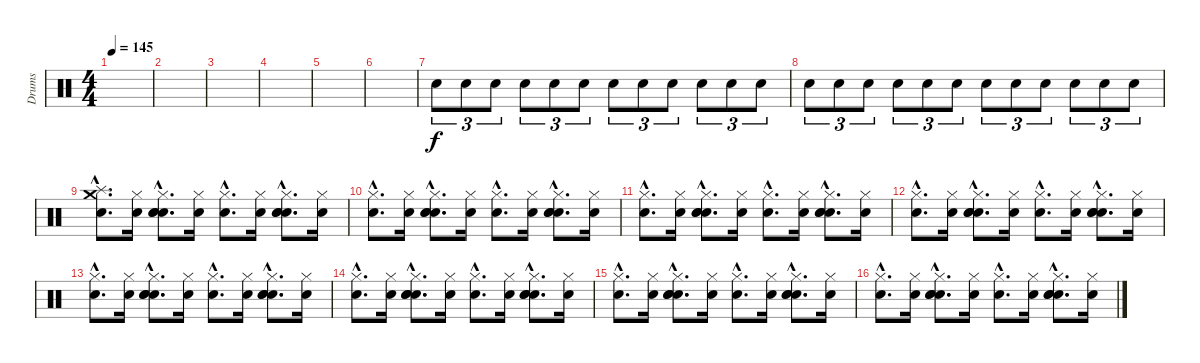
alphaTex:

\track ("Drums" "Drums") {instrument percussion}
\staff {score}
\articulation defaults
\ts (4 4)
\tempo 145
\clef neutral
\ks c
|
|
|
|
|
|
"Snare (hit) 2".8{tu (3 2)} "Snare (hit) 2".8{tu (3 2)} "Snare (hit) 2".8{tu (3 2)} "Snare (hit) 2".8{tu (3 2)} "Snare (hit) 2".8{tu (3 2)} "Snare (hit) 2".8{tu (3 2)} "Snare (hit) 2".8{tu (3 2)} "Snare (hit) 2".8{tu (3 2)} "Snare (hit) 2".8{tu (3 2)} "Snare (hit) 2".8{tu (3 2)} "Snare (hit) 2".8{tu (3 2)} "Snare (hit) 2".8{tu (3 2)} |
"Snare (hit) 2".8{tu (3 2)} "Snare (hit) 2".8{tu (3 2)} "Snare (hit) 2".8{tu (3 2)} "Electric Snare (hit)".8{tu (3 2)} "Electric Snare (hit)".8{tu (3 2)} "Electric Snare (hit)".8{tu (3 2)} "Electric Snare (hit)".8{tu (3 2)} "Electric Snare (hit)".8{tu (3 2)} "Electric Snare (hit)".8{tu (3 2)} "Electric Snare (hit)".8{tu (3 2)} "Electric Snare (hit)".8{tu (3 2)} "Electric Snare (hit)".8{tu (3 2)} |
("Crash medium (hit)"{hac} "Splash (hit)"{hac} "Snare (hit) 2"{hac}).8{d} ("Hi-Hat (closed)" "Snare (hit) 2").16 ("Hi-Hat (closed)"{hac} "Snare (hit) 2"{hac} "Electric Snare (hit)"{hac} "Electric Snare (hit)"{hac}).8{d} ("Hi-Hat (closed)" "Snare (hit) 2").16 ("Hi-Hat (closed)"{hac} "Snare (hit) 2"{hac}).8{d} ("Hi-Hat (closed)" "Snare (hit) 2").16 ("Hi-Hat (closed)"{hac} "Snare (hit) 2"{hac} "Electric Snare (hit)"{hac} "Electric Snare (hit)"{hac}).8{d} ("Hi-Hat (closed)" "Snare (hit) 2").16 |
("Hi-Hat (closed)"{hac} "Snare (hit) 2"{hac}).8{d} ("Hi-Hat (closed)" "Snare (hit) 2").16 ("Hi-Hat (closed)"{hac} "Snare (hit) 2"{hac} "Electric Snare (hit)"{hac} "Electric Snare (hit)"{hac}).8{d} ("Hi-Hat (closed)" "Snare (hit) 2").16 ("Hi-Hat (closed)"{hac} "Snare (hit) 2"{hac}).8{d} ("Hi-Hat (closed)" "Snare (hit) 2").16 ("Hi-Hat (closed)"{hac} "Snare (hit) 2"{hac} "Electric Snare (hit)"{hac} "Electric Snare (hit)"{hac}).8{d} ("Hi-Hat (closed)" "Snare (hit) 2").16 |
("Hi-Hat (closed)"{hac} "Snare (hit) 2"{hac}).8{d} ("Hi-Hat (closed)" "Snare (hit) 2").16 ("Hi-Hat (closed)"{hac} "Snare (hit) 2"{hac} "Electric Snare (hit)"{hac} "Electric Snare (hit)"{hac}).8{d} ("Hi-Hat (closed)" "Snare (hit) 2").16 ("Hi-Hat (closed)"{hac} "Snare (hit) 2"{hac}).8{d} ("Hi-Hat (closed)" "Snare (hit) 2").16 ("Hi-Hat (closed)"{hac} "Snare (hit) 2"{hac} "Electric Snare (hit)"{hac} "Electric Snare (hit)"{hac}).8{d} ("Hi-Hat (closed)" "Snare (hit) 2").16 |
("Hi-Hat (closed)"{hac} "Snare (hit) 2"{hac}).8{d} ("Hi-Hat (closed)" "Snare (hit) 2").16 ("Hi-Hat (closed)"{hac} "Snare (hit) 2"{hac} "Electric Snare (hit)"{hac} "Electric Snare (hit)"{hac}).8{d} ("Hi-Hat (closed)" "Snare (hit) 2").16 ("Hi-Hat (closed)"{hac} "Snare (hit) 2"{hac}).8{d} ("Hi-Hat (closed)" "Snare (hit) 2").16 ("Hi-Hat (closed)"{hac} "Snare (hit) 2"{hac} "Electric Snare (hit)"{hac} "Electric Snare (hit)"{hac}).8{d} ("Hi-Hat (closed)" "Snare (hit) 2").16 |
("Hi-Hat (closed)"{hac} "Snare (hit) 2"{hac}).8{d} ("Hi-Hat (closed)" "Snare (hit) 2").16 ("Hi-Hat (closed)"{hac} "Snare (hit) 2"{hac} "Electric Snare (hit)"{hac} "Electric Snare (hit)"{hac}).8{d} ("Hi-Hat (closed)" "Snare (hit) 2").16 ("Hi-Hat (closed)"{hac} "Snare (hit) 2"{hac}).8{d} ("Hi-Hat (closed)" "Snare (hit) 2").16 ("Hi-Hat (closed)"{hac} "Snare (hit) 2"{hac} "Electric Snare (hit)"{hac} "Electric Snare (hit)"{hac}).8{d} ("Hi-Hat (closed)" "Snare (hit) 2").16 |
("Hi-Hat (closed)"{hac} "Snare (hit) 2"{hac}).8{d} ("Hi-Hat (closed)" "Snare (hit) 2").16 ("Hi-Hat (closed)"{hac} "Snare (hit) 2"{hac} "Electric Snare (hit)"{hac} "Electric Snare (hit)"{hac}).8{d} ("Hi-Hat (closed)" "Snare (hit) 2").16 ("Hi-Hat (closed)"{hac} "Snare (hit) 2"{hac}).8{d} ("Hi-Hat (closed)" "Snare (hit) 2").16 ("Hi-Hat (closed)"{hac} "Snare (hit) 2"{hac} "Electric Snare (hit)"{hac} "Electric Snare (hit)"{hac}).8{d} ("Hi-Hat (closed)" "Snare (hit) 2").16 |
("Hi-Hat (closed)"{hac} "Snare (hit) 2"{hac}).8{d} ("Hi-Hat (closed)" "Snare (hit) 2").16 ("Hi-Hat (closed)"{hac} "Snare (hit) 2"{hac} "Electric Snare (hit)"{hac} "Electric Snare (hit)"{hac}).8{d} ("Hi-Hat (closed)" "Snare (hit) 2").16 ("Hi-Hat (closed)"{hac} "Snare (hit) 2"{hac}).8{d} ("Hi-Hat (closed)" "Snare (hit) 2").16 ("Hi-Hat (closed)"{hac} "Snare (hit) 2"{hac} "Electric Snare (hit)"{hac} "Electric Snare (hit)"{hac}).8{d} ("Hi-Hat (closed)" "Snare (hit) 2").16 |
("Hi-Hat (closed)"{hac} "Snare (hit) 2"{hac}).8{d} ("Hi-Hat (closed)" "Snare (hit) 2").16 ("Hi-Hat (closed)"{hac} "Snare (hit) 2"{hac} "Electric Snare (hit)"{hac} "Electric Snare (hit)"{hac}).8{d} ("Hi-Hat (closed)" "Snare (hit) 2").16 ("Hi-Hat (closed)"{hac} "Snare (hit) 2"{hac}).8{d} ("Hi-Hat (closed)" "Snare (hit) 2").16 ("Hi-Hat (closed)"{hac} "Snare (hit) 2"{hac} "Electric Snare (hit)"{hac} "Electric Snare (hit)"{hac}).8{d} ("Hi-Hat (closed)" "Snare (hit) 2").16
